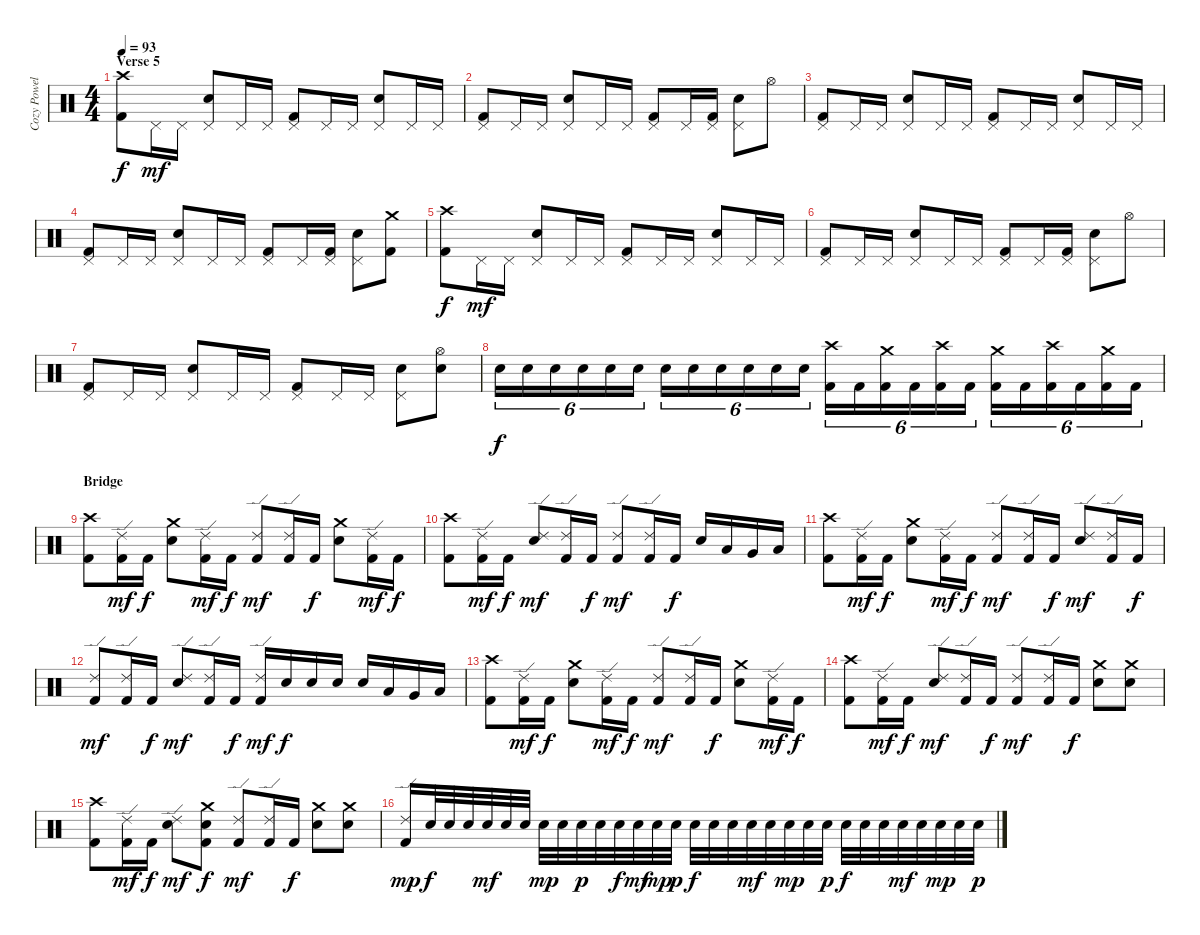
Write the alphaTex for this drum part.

\track ("Cozy Powell" "Cozy Powel") {instrument percussion}
\staff {score}
\articulation defaults
\ts (4 4)
\section ("" "Verse 5")
\tempo 93
\clef neutral
\ks c
("Kick (hit) 2" "Crash high (hit)").8{dy f} "Pedal Hi-Hat (hit)".16{dy mf} "Pedal Hi-Hat (hit)".16 ("Pedal Hi-Hat (hit)" "Snare (hit) 2").8 "Pedal Hi-Hat (hit)".16 "Pedal Hi-Hat (hit)".16 ("Kick (hit) 2" "Pedal Hi-Hat (hit)").8 "Pedal Hi-Hat (hit)".16 "Pedal Hi-Hat (hit)".16 ("Pedal Hi-Hat (hit)" "Snare (hit) 2").8 "Pedal Hi-Hat (hit)".16 "Pedal Hi-Hat (hit)".16 |
("Kick (hit) 2" "Pedal Hi-Hat (hit)").8 "Pedal Hi-Hat (hit)".16 "Pedal Hi-Hat (hit)".16 ("Pedal Hi-Hat (hit)" "Snare (hit) 2").8 "Pedal Hi-Hat (hit)".16 "Pedal Hi-Hat (hit)".16 ("Kick (hit) 2" "Pedal Hi-Hat (hit)").8 "Pedal Hi-Hat (hit)".16 ("Kick (hit) 2" "Pedal Hi-Hat (hit)").16 ("Pedal Hi-Hat (hit)" "Snare (hit) 2").8 "Hi-Hat (open)".8 |
("Kick (hit) 2" "Pedal Hi-Hat (hit)").8 "Pedal Hi-Hat (hit)".16 "Pedal Hi-Hat (hit)".16 ("Pedal Hi-Hat (hit)" "Snare (hit) 2").8 "Pedal Hi-Hat (hit)".16 "Pedal Hi-Hat (hit)".16 ("Kick (hit) 2" "Pedal Hi-Hat (hit)").8 "Pedal Hi-Hat (hit)".16 "Pedal Hi-Hat (hit)".16 ("Pedal Hi-Hat (hit)" "Snare (hit) 2").8 "Pedal Hi-Hat (hit)".16 "Pedal Hi-Hat (hit)".16 |
("Kick (hit) 2" "Pedal Hi-Hat (hit)").8 "Pedal Hi-Hat (hit)".16 "Pedal Hi-Hat (hit)".16 ("Pedal Hi-Hat (hit)" "Snare (hit) 2").8 "Pedal Hi-Hat (hit)".16 "Pedal Hi-Hat (hit)".16 ("Kick (hit) 2" "Pedal Hi-Hat (hit)").8 "Pedal Hi-Hat (hit)".16 ("Kick (hit) 2" "Pedal Hi-Hat (hit)").16 ("Pedal Hi-Hat (hit)" "Snare (hit) 2").8 ("Kick (hit) 2" "Crash medium (hit)").8 |
("Kick (hit) 2" "Crash high (hit)").8{dy f} "Pedal Hi-Hat (hit)".16{dy mf} "Pedal Hi-Hat (hit)".16 ("Pedal Hi-Hat (hit)" "Snare (hit) 2").8 "Pedal Hi-Hat (hit)".16 "Pedal Hi-Hat (hit)".16 ("Kick (hit) 2" "Pedal Hi-Hat (hit)").8 "Pedal Hi-Hat (hit)".16 "Pedal Hi-Hat (hit)".16 ("Pedal Hi-Hat (hit)" "Snare (hit) 2").8 "Pedal Hi-Hat (hit)".16 "Pedal Hi-Hat (hit)".16 |
("Kick (hit) 2" "Pedal Hi-Hat (hit)").8 "Pedal Hi-Hat (hit)".16 "Pedal Hi-Hat (hit)".16 ("Pedal Hi-Hat (hit)" "Snare (hit) 2").8 "Pedal Hi-Hat (hit)".16 "Pedal Hi-Hat (hit)".16 ("Kick (hit) 2" "Pedal Hi-Hat (hit)").8 "Pedal Hi-Hat (hit)".16 ("Kick (hit) 2" "Pedal Hi-Hat (hit)").16 ("Pedal Hi-Hat (hit)" "Snare (hit) 2").8 "Hi-Hat (open)".8 |
("Kick (hit) 2" "Pedal Hi-Hat (hit)").8 "Pedal Hi-Hat (hit)".16 "Pedal Hi-Hat (hit)".16 ("Pedal Hi-Hat (hit)" "Snare (hit) 2").8 "Pedal Hi-Hat (hit)".16 "Pedal Hi-Hat (hit)".16 ("Kick (hit) 2" "Pedal Hi-Hat (hit)").8 "Pedal Hi-Hat (hit)".16 "Pedal Hi-Hat (hit)".16 ("Pedal Hi-Hat (hit)" "Snare (hit) 2").8 ("Hi-Hat (open)" "Snare (hit) 2").8 |
"Snare (hit) 2".16{tu (6 4) dy f} "Snare (hit) 2".16{tu (6 4)} "Snare (hit) 2".16{tu (6 4)} "Snare (hit) 2".16{tu (6 4)} "Snare (hit) 2".16{tu (6 4)} "Snare (hit) 2".16{tu (6 4)} "Snare (hit) 2".16{tu (6 4)} "Snare (hit) 2".16{tu (6 4)} "Snare (hit) 2".16{tu (6 4)} "Snare (hit) 2".16{tu (6 4)} "Snare (hit) 2".16{tu (6 4)} "Snare (hit) 2".16{tu (6 4)} ("Kick (hit) 2" "Crash high (hit)").16{tu (6 4)} "Kick (hit) 2".16{tu (6 4)} ("Kick (hit) 2" "Crash medium (hit)").16{tu (6 4)} "Kick (hit) 2".16{tu (6 4)} ("Kick (hit) 2" "Crash high (hit)").16{tu (6 4)} "Kick (hit) 2".16{tu (6 4)} ("Kick (hit) 2" "Crash medium (hit)").16{tu (6 4)} "Kick (hit) 2".16{tu (6 4)} ("Kick (hit) 2" "Crash high (hit)").16{tu (6 4)} "Kick (hit) 2".16{tu (6 4)} ("Kick (hit) 2" "Crash medium (hit)").16{tu (6 4)} "Kick (hit) 2".16{tu (6 4)} |
\section ("" "Bridge")
("Kick (hit) 2" "Crash high (hit)").8 ("Kick (hit) 2" "Ride (edge) 2").16{dy mf} "Kick (hit) 2".16{dy f} ("Crash medium (hit)" "Snare (hit) 2").8 ("Kick (hit) 2" "Ride (edge) 2").16{dy mf} "Kick (hit) 2".16{dy f} ("Kick (hit) 2" "Ride (edge) 2").8{dy mf} ("Kick (hit) 2" "Ride (edge) 2").16 "Kick (hit) 2".16{dy f} ("Crash medium (hit)" "Snare (hit) 2").8 ("Kick (hit) 2" "Ride (edge) 2").16{dy mf} "Kick (hit) 2".16{dy f} |
("Kick (hit) 2" "Crash high (hit)").8 ("Kick (hit) 2" "Ride (edge) 2").16{dy mf} "Kick (hit) 2".16{dy f} ("Ride (edge) 2" "Snare (hit) 2").8{dy mf} ("Kick (hit) 2" "Ride (edge) 2").16 "Kick (hit) 2".16{dy f} ("Kick (hit) 2" "Ride (edge) 2").8{dy mf} ("Kick (hit) 2" "Ride (edge) 2").16 "Kick (hit) 2".16{dy f} "Snare (hit) 2".16 "Low Tom (hit)".16 "Very Low Tom (hit)".16 "Low Floor Tom (hit)".16 |
("Kick (hit) 2" "Crash high (hit)").8 ("Kick (hit) 2" "Ride (edge) 2").16{dy mf} "Kick (hit) 2".16{dy f} ("Crash medium (hit)" "Snare (hit) 2").8 ("Kick (hit) 2" "Ride (edge) 2").16{dy mf} "Kick (hit) 2".16{dy f} ("Kick (hit) 2" "Ride (edge) 2").8{dy mf} ("Kick (hit) 2" "Ride (edge) 2").16 "Kick (hit) 2".16{dy f} ("Ride (edge) 2" "Snare (hit) 2").8{dy mf} ("Kick (hit) 2" "Ride (edge) 2").16 "Kick (hit) 2".16{dy f} |
("Kick (hit) 2" "Ride (edge) 2").8{dy mf} ("Kick (hit) 2" "Ride (edge) 2").16 "Kick (hit) 2".16{dy f} ("Ride (edge) 2" "Snare (hit) 2").8{dy mf} ("Kick (hit) 2" "Ride (edge) 2").16 "Kick (hit) 2".16{dy f} ("Kick (hit) 2" "Ride (edge) 2").16{dy mf} "Snare (hit) 2".16{dy f} "Snare (hit) 2".16 "Snare (hit) 2".16 "Snare (hit) 2".16 "Low Tom (hit)".16 "Very Low Tom (hit)".16 "Low Floor Tom (hit)".16 |
("Kick (hit) 2" "Crash high (hit)").8 ("Kick (hit) 2" "Ride (edge) 2").16{dy mf} "Kick (hit) 2".16{dy f} ("Crash medium (hit)" "Snare (hit) 2").8 ("Kick (hit) 2" "Ride (edge) 2").16{dy mf} "Kick (hit) 2".16{dy f} ("Kick (hit) 2" "Ride (edge) 2").8{dy mf} ("Kick (hit) 2" "Ride (edge) 2").16 "Kick (hit) 2".16{dy f} ("Crash medium (hit)" "Snare (hit) 2").8 ("Kick (hit) 2" "Ride (edge) 2").16{dy mf} "Kick (hit) 2".16{dy f} |
("Kick (hit) 2" "Crash high (hit)").8 ("Kick (hit) 2" "Ride (edge) 2").16{dy mf} "Kick (hit) 2".16{dy f} ("Ride (edge) 2" "Snare (hit) 2").8{dy mf} ("Kick (hit) 2" "Ride (edge) 2").16 "Kick (hit) 2".16{dy f} ("Kick (hit) 2" "Ride (edge) 2").8{dy mf} ("Kick (hit) 2" "Ride (edge) 2").16 "Kick (hit) 2".16{dy f} ("Crash medium (hit)" "Snare (hit) 2").8 ("Crash medium (hit)" "Snare (hit) 2").8 |
("Kick (hit) 2" "Crash high (hit)").8 ("Kick (hit) 2" "Ride (edge) 2").16{dy mf} "Kick (hit) 2".16{dy f} ("Ride (edge) 2" "Snare (hit) 2").8{dy mf} ("Kick (hit) 2" "Crash medium (hit)" "Snare (hit) 2").8{dy f} ("Kick (hit) 2" "Ride (edge) 2").8{dy mf} ("Kick (hit) 2" "Ride (edge) 2").16 "Kick (hit) 2".16{dy f} ("Crash medium (hit)" "Snare (hit) 2").8 ("Crash medium (hit)" "Snare (hit) 2").8 |
("Kick (hit) 2" "Ride (edge) 2").16{dy mp} "Snare (hit) 2".32{dy f} "Snare (hit) 2".32 "Snare (hit) 2".32 "Snare (hit) 2".32{dy mf} "Snare (hit) 2".32 "Snare (hit) 2".32 "Snare (hit) 2".32{dy mp} "Snare (hit) 2".32 "Snare (hit) 2".32{dy p} "Snare (hit) 2".32 "Snare (hit) 2".32{dy f} "Snare (hit) 2".32{dy mf} "Snare (hit) 2".32{dy mp} "Snare (hit) 2".32{dy p} "Snare (hit) 2".32{dy f} "Snare (hit) 2".32 "Snare (hit) 2".32 "Snare (hit) 2".32{dy mf} "Snare (hit) 2".32 "Snare (hit) 2".32{dy mp} "Snare (hit) 2".32 "Snare (hit) 2".32{dy p} "Snare (hit) 2".32{dy f} "Snare (hit) 2".32 "Snare (hit) 2".32 "Snare (hit) 2".32{dy mf} "Snare (hit) 2".32 "Snare (hit) 2".32{dy mp} "Snare (hit) 2".32 "Snare (hit) 2".32{dy p}
